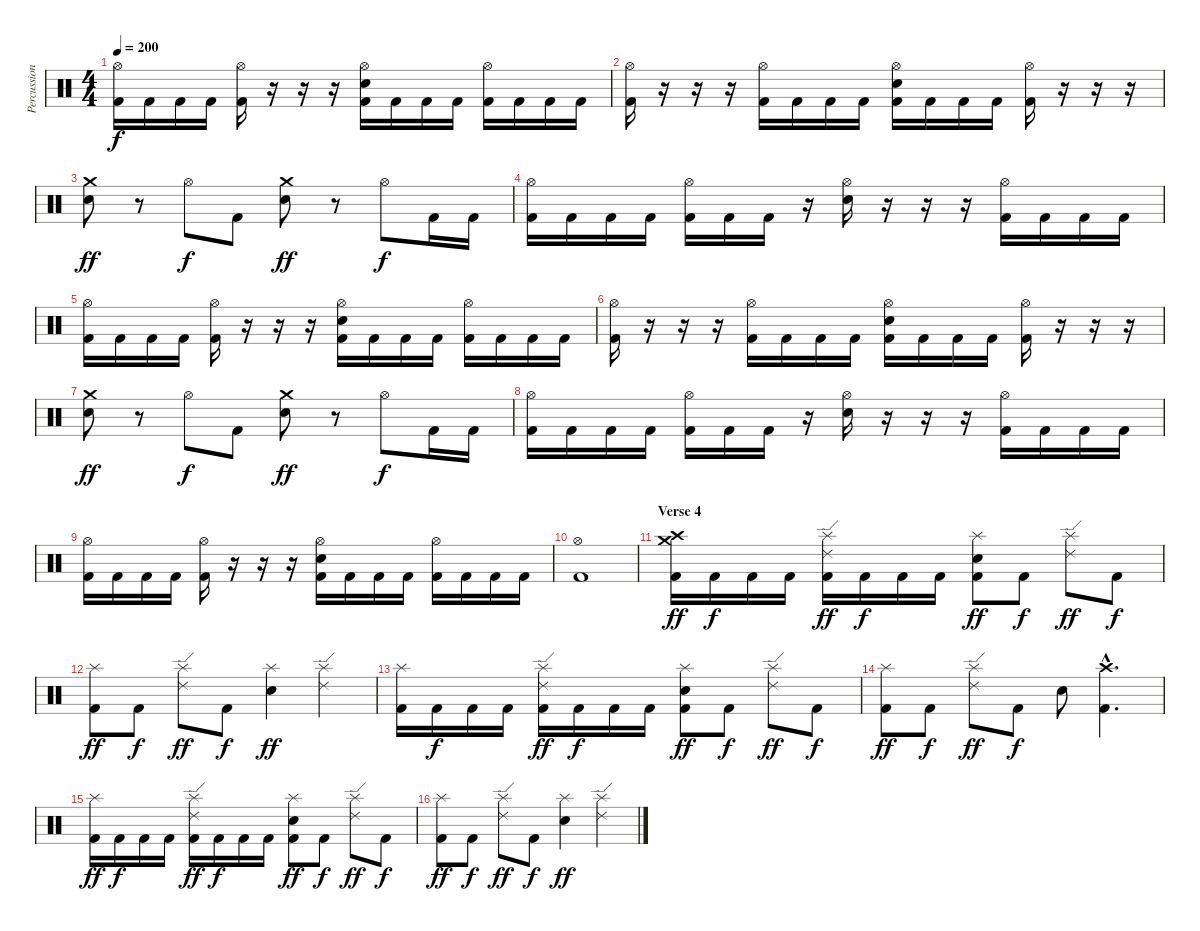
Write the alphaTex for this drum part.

\track ("Percussions" "Percussion") {instrument percussion}
\staff {score}
\articulation defaults
\ts (4 4)
\tempo 200
\clef neutral
\ks c
("Hi-Hat (open)" "Kick (hit) 2").16{dy f} "Kick (hit) 2".16 "Kick (hit) 2".16 "Kick (hit) 2".16 ("Hi-Hat (open)" "Kick (hit) 2").16 r.16 r.16 r.16 ("Hi-Hat (open)" "Electric Snare (hit)" "Kick (hit) 2").16 "Kick (hit) 2".16 "Kick (hit) 2".16 "Kick (hit) 2".16 ("Hi-Hat (open)" "Kick (hit) 2").16 "Kick (hit) 2".16 "Kick (hit) 2".16 "Kick (hit) 2".16 |
("Hi-Hat (open)" "Kick (hit) 2").16 r.16 r.16 r.16 ("Hi-Hat (open)" "Kick (hit) 2").16 "Kick (hit) 2".16 "Kick (hit) 2".16 "Kick (hit) 2".16 ("Hi-Hat (open)" "Electric Snare (hit)" "Kick (hit) 2").16 "Kick (hit) 2".16 "Kick (hit) 2".16 "Kick (hit) 2".16 ("Hi-Hat (open)" "Kick (hit) 2").16 r.16 r.16 r.16 |
("Crash medium (hit)" "Electric Snare (hit)").8{dy ff} r.8 "Hi-Hat (open)".8{dy f} "Kick (hit) 2".8 ("Crash medium (hit)" "Electric Snare (hit)").8{dy ff} r.8 "Hi-Hat (open)".8{dy f} "Kick (hit) 2".16 "Kick (hit) 2".16 |
("Hi-Hat (open)" "Kick (hit) 2").16 "Kick (hit) 2".16 "Kick (hit) 2".16 "Kick (hit) 2".16 ("Hi-Hat (open)" "Kick (hit) 2").16 "Kick (hit) 2".16 "Kick (hit) 2".16 r.16 ("Hi-Hat (open)" "Electric Snare (hit)").16 r.16 r.16 r.16 ("Hi-Hat (open)" "Kick (hit) 2").16 "Kick (hit) 2".16 "Kick (hit) 2".16 "Kick (hit) 2".16 |
("Hi-Hat (open)" "Kick (hit) 2").16 "Kick (hit) 2".16 "Kick (hit) 2".16 "Kick (hit) 2".16 ("Hi-Hat (open)" "Kick (hit) 2").16 r.16 r.16 r.16 ("Hi-Hat (open)" "Electric Snare (hit)" "Kick (hit) 2").16 "Kick (hit) 2".16 "Kick (hit) 2".16 "Kick (hit) 2".16 ("Hi-Hat (open)" "Kick (hit) 2").16 "Kick (hit) 2".16 "Kick (hit) 2".16 "Kick (hit) 2".16 |
("Hi-Hat (open)" "Kick (hit) 2").16 r.16 r.16 r.16 ("Hi-Hat (open)" "Kick (hit) 2").16 "Kick (hit) 2".16 "Kick (hit) 2".16 "Kick (hit) 2".16 ("Hi-Hat (open)" "Electric Snare (hit)" "Kick (hit) 2").16 "Kick (hit) 2".16 "Kick (hit) 2".16 "Kick (hit) 2".16 ("Hi-Hat (open)" "Kick (hit) 2").16 r.16 r.16 r.16 |
("Crash medium (hit)" "Electric Snare (hit)").8{dy ff} r.8 "Hi-Hat (open)".8{dy f} "Kick (hit) 2".8 ("Crash medium (hit)" "Electric Snare (hit)").8{dy ff} r.8 "Hi-Hat (open)".8{dy f} "Kick (hit) 2".16 "Kick (hit) 2".16 |
("Hi-Hat (open)" "Kick (hit) 2").16 "Kick (hit) 2".16 "Kick (hit) 2".16 "Kick (hit) 2".16 ("Hi-Hat (open)" "Kick (hit) 2").16 "Kick (hit) 2".16 "Kick (hit) 2".16 r.16 ("Hi-Hat (open)" "Electric Snare (hit)").16 r.16 r.16 r.16 ("Hi-Hat (open)" "Kick (hit) 2").16 "Kick (hit) 2".16 "Kick (hit) 2".16 "Kick (hit) 2".16 |
("Hi-Hat (open)" "Kick (hit) 2").16 "Kick (hit) 2".16 "Kick (hit) 2".16 "Kick (hit) 2".16 ("Hi-Hat (open)" "Kick (hit) 2").16 r.16 r.16 r.16 ("Hi-Hat (open)" "Electric Snare (hit)" "Kick (hit) 2").16 "Kick (hit) 2".16 "Kick (hit) 2".16 "Kick (hit) 2".16 ("Hi-Hat (open)" "Kick (hit) 2").16 "Kick (hit) 2".16 "Kick (hit) 2".16 "Kick (hit) 2".16 |
("Hi-Hat (open)" "Kick (hit) 2").1 |
\section ("" "Verse 4")
("Crash high (hit)" "Crash medium (hit)" "Kick (hit) 2").16{dy ff} "Kick (hit) 2".16{dy f} "Kick (hit) 2".16 "Kick (hit) 2".16 ("Ride (edge) 2" "Splash (hit)" "Kick (hit) 2").16{dy ff} "Kick (hit) 2".16{dy f} "Kick (hit) 2".16 "Kick (hit) 2".16 ("Splash (hit)" "Electric Snare (hit)" "Kick (hit) 2").8{dy ff} "Kick (hit) 2".8{dy f} ("Ride (edge) 2" "Splash (hit)").8{dy ff} "Kick (hit) 2".8{dy f} |
("Splash (hit)" "Kick (hit) 2").8{dy ff} "Kick (hit) 2".8{dy f} ("Ride (edge) 2" "Splash (hit)").8{dy ff} "Kick (hit) 2".8{dy f} ("Splash (hit)" "Electric Snare (hit)").4{dy ff} ("Ride (edge) 2" "Splash (hit)").4 |
("Splash (hit)" "Kick (hit) 2").16 "Kick (hit) 2".16{dy f} "Kick (hit) 2".16 "Kick (hit) 2".16 ("Ride (edge) 2" "Splash (hit)" "Kick (hit) 2").16{dy ff} "Kick (hit) 2".16{dy f} "Kick (hit) 2".16 "Kick (hit) 2".16 ("Splash (hit)" "Electric Snare (hit)" "Kick (hit) 2").8{dy ff} "Kick (hit) 2".8{dy f} ("Ride (edge) 2" "Splash (hit)").8{dy ff} "Kick (hit) 2".8{dy f} |
("Splash (hit)" "Kick (hit) 2").8{dy ff} "Kick (hit) 2".8{dy f} ("Ride (edge) 2" "Splash (hit)").8{dy ff} "Kick (hit) 2".8{dy f} "Electric Snare (hit)".8 ("Crash high (hit)"{hac} "Kick (hit) 2"{hac}).4{d} |
("Splash (hit)" "Kick (hit) 2").16{dy ff} "Kick (hit) 2".16{dy f} "Kick (hit) 2".16 "Kick (hit) 2".16 ("Ride (edge) 2" "Splash (hit)" "Kick (hit) 2").16{dy ff} "Kick (hit) 2".16{dy f} "Kick (hit) 2".16 "Kick (hit) 2".16 ("Splash (hit)" "Electric Snare (hit)" "Kick (hit) 2").8{dy ff} "Kick (hit) 2".8{dy f} ("Ride (edge) 2" "Splash (hit)").8{dy ff} "Kick (hit) 2".8{dy f} |
("Splash (hit)" "Kick (hit) 2").8{dy ff} "Kick (hit) 2".8{dy f} ("Ride (edge) 2" "Splash (hit)").8{dy ff} "Kick (hit) 2".8{dy f} ("Splash (hit)" "Electric Snare (hit)").4{dy ff} ("Ride (edge) 2" "Splash (hit)").4
